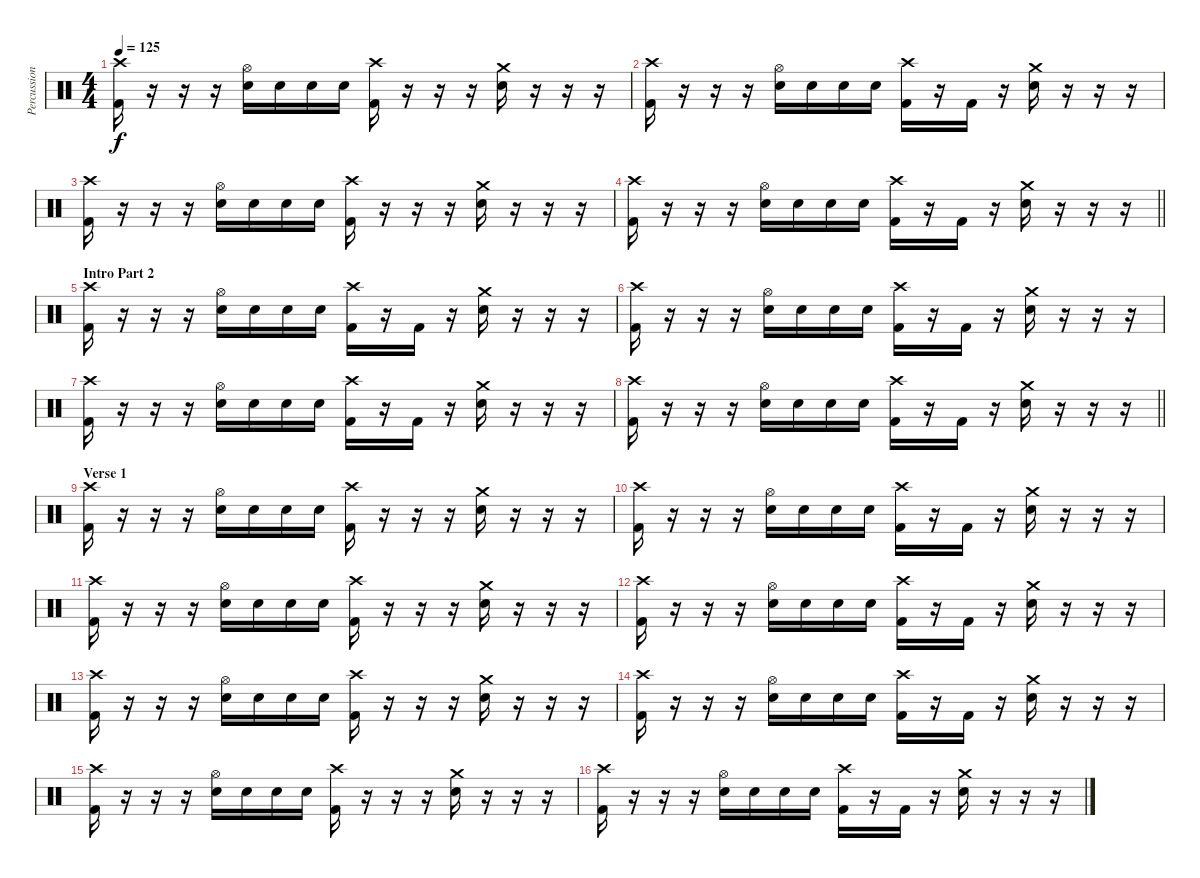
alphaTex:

\track ("Percussion" "Percussion") {instrument percussion}
\staff {score}
\articulation defaults
\ts (4 4)
\tempo 125
\clef neutral
\ks c
("Crash high (hit)" "Kick (hit) 2").16{dy f} r.16 r.16 r.16 ("Hi-Hat (open)" "Snare (hit) 2").16 "Snare (hit) 2".16 "Snare (hit) 2".16 "Snare (hit) 2".16 ("Crash high (hit)" "Kick (hit) 2").16 r.16 r.16 r.16 ("Crash medium (hit)" "Snare (hit) 2").16 r.16 r.16 r.16 |
("Crash high (hit)" "Kick (hit) 2").16 r.16 r.16 r.16 ("Hi-Hat (open)" "Snare (hit) 2").16 "Snare (hit) 2".16 "Snare (hit) 2".16 "Snare (hit) 2".16 ("Crash high (hit)" "Kick (hit) 2").16 r.16 "Kick (hit) 2".16 r.16 ("Crash medium (hit)" "Snare (hit) 2").16 r.16 r.16 r.16 |
("Crash high (hit)" "Kick (hit) 2").16 r.16 r.16 r.16 ("Hi-Hat (open)" "Snare (hit) 2").16 "Snare (hit) 2".16 "Snare (hit) 2".16 "Snare (hit) 2".16 ("Crash high (hit)" "Kick (hit) 2").16 r.16 r.16 r.16 ("Crash medium (hit)" "Snare (hit) 2").16 r.16 r.16 r.16 |
\barLineRight lightlight
("Crash high (hit)" "Kick (hit) 2").16 r.16 r.16 r.16 ("Hi-Hat (open)" "Snare (hit) 2").16 "Snare (hit) 2".16 "Snare (hit) 2".16 "Snare (hit) 2".16 ("Crash high (hit)" "Kick (hit) 2").16 r.16 "Kick (hit) 2".16 r.16 ("Crash medium (hit)" "Snare (hit) 2").16 r.16 r.16 r.16 |
\section ("" "Intro Part 2")
("Crash high (hit)" "Kick (hit) 2").16 r.16 r.16 r.16 ("Hi-Hat (open)" "Snare (hit) 2").16 "Snare (hit) 2".16 "Snare (hit) 2".16 "Snare (hit) 2".16 ("Crash high (hit)" "Kick (hit) 2").16 r.16 "Kick (hit) 2".16 r.16 ("Crash medium (hit)" "Snare (hit) 2").16 r.16 r.16 r.16 |
("Crash high (hit)" "Kick (hit) 2").16 r.16 r.16 r.16 ("Hi-Hat (open)" "Snare (hit) 2").16 "Snare (hit) 2".16 "Snare (hit) 2".16 "Snare (hit) 2".16 ("Crash high (hit)" "Kick (hit) 2").16 r.16 "Kick (hit) 2".16 r.16 ("Crash medium (hit)" "Snare (hit) 2").16 r.16 r.16 r.16 |
("Crash high (hit)" "Kick (hit) 2").16 r.16 r.16 r.16 ("Hi-Hat (open)" "Snare (hit) 2").16 "Snare (hit) 2".16 "Snare (hit) 2".16 "Snare (hit) 2".16 ("Crash high (hit)" "Kick (hit) 2").16 r.16 "Kick (hit) 2".16 r.16 ("Crash medium (hit)" "Snare (hit) 2").16 r.16 r.16 r.16 |
\barLineRight lightlight
("Crash high (hit)" "Kick (hit) 2").16 r.16 r.16 r.16 ("Hi-Hat (open)" "Snare (hit) 2").16 "Snare (hit) 2".16 "Snare (hit) 2".16 "Snare (hit) 2".16 ("Crash high (hit)" "Kick (hit) 2").16 r.16 "Kick (hit) 2".16 r.16 ("Crash medium (hit)" "Snare (hit) 2").16 r.16 r.16 r.16 |
\section ("" "Verse 1")
("Crash high (hit)" "Kick (hit) 2").16 r.16 r.16 r.16 ("Hi-Hat (open)" "Snare (hit) 2").16 "Snare (hit) 2".16 "Snare (hit) 2".16 "Snare (hit) 2".16 ("Crash high (hit)" "Kick (hit) 2").16 r.16 r.16 r.16 ("Crash medium (hit)" "Snare (hit) 2").16 r.16 r.16 r.16 |
("Crash high (hit)" "Kick (hit) 2").16 r.16 r.16 r.16 ("Hi-Hat (open)" "Snare (hit) 2").16 "Snare (hit) 2".16 "Snare (hit) 2".16 "Snare (hit) 2".16 ("Crash high (hit)" "Kick (hit) 2").16 r.16 "Kick (hit) 2".16 r.16 ("Crash medium (hit)" "Snare (hit) 2").16 r.16 r.16 r.16 |
("Crash high (hit)" "Kick (hit) 2").16 r.16 r.16 r.16 ("Hi-Hat (open)" "Snare (hit) 2").16 "Snare (hit) 2".16 "Snare (hit) 2".16 "Snare (hit) 2".16 ("Crash high (hit)" "Kick (hit) 2").16 r.16 r.16 r.16 ("Crash medium (hit)" "Snare (hit) 2").16 r.16 r.16 r.16 |
("Crash high (hit)" "Kick (hit) 2").16 r.16 r.16 r.16 ("Hi-Hat (open)" "Snare (hit) 2").16 "Snare (hit) 2".16 "Snare (hit) 2".16 "Snare (hit) 2".16 ("Crash high (hit)" "Kick (hit) 2").16 r.16 "Kick (hit) 2".16 r.16 ("Crash medium (hit)" "Snare (hit) 2").16 r.16 r.16 r.16 |
("Crash high (hit)" "Kick (hit) 2").16 r.16 r.16 r.16 ("Hi-Hat (open)" "Snare (hit) 2").16 "Snare (hit) 2".16 "Snare (hit) 2".16 "Snare (hit) 2".16 ("Crash high (hit)" "Kick (hit) 2").16 r.16 r.16 r.16 ("Crash medium (hit)" "Snare (hit) 2").16 r.16 r.16 r.16 |
("Crash high (hit)" "Kick (hit) 2").16 r.16 r.16 r.16 ("Hi-Hat (open)" "Snare (hit) 2").16 "Snare (hit) 2".16 "Snare (hit) 2".16 "Snare (hit) 2".16 ("Crash high (hit)" "Kick (hit) 2").16 r.16 "Kick (hit) 2".16 r.16 ("Crash medium (hit)" "Snare (hit) 2").16 r.16 r.16 r.16 |
("Crash high (hit)" "Kick (hit) 2").16 r.16 r.16 r.16 ("Hi-Hat (open)" "Snare (hit) 2").16 "Snare (hit) 2".16 "Snare (hit) 2".16 "Snare (hit) 2".16 ("Crash high (hit)" "Kick (hit) 2").16 r.16 r.16 r.16 ("Crash medium (hit)" "Snare (hit) 2").16 r.16 r.16 r.16 |
("Crash high (hit)" "Kick (hit) 2").16 r.16 r.16 r.16 ("Hi-Hat (open)" "Snare (hit) 2").16 "Snare (hit) 2".16 "Snare (hit) 2".16 "Snare (hit) 2".16 ("Crash high (hit)" "Kick (hit) 2").16 r.16 "Kick (hit) 2".16 r.16 ("Crash medium (hit)" "Snare (hit) 2").16 r.16 r.16 r.16
